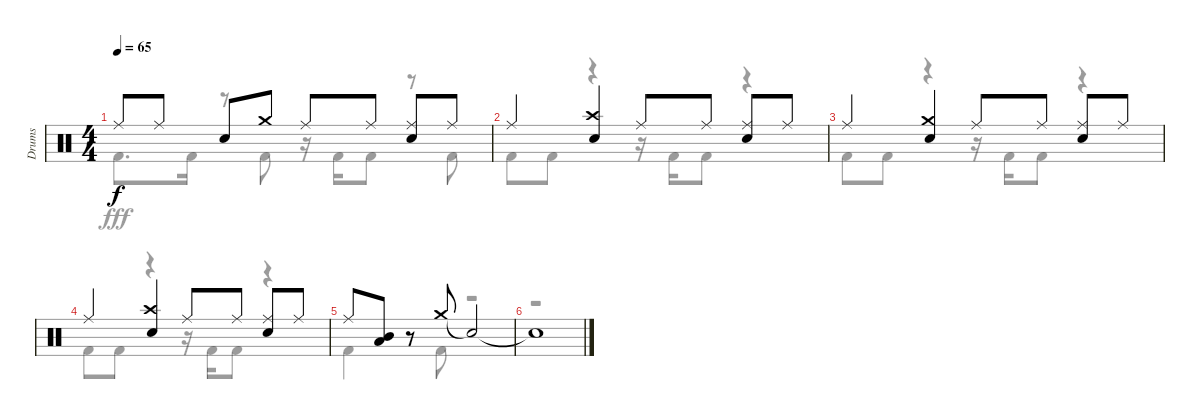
\track ("Drums" "Drums") {instrument percussion}
\staff {score}
\articulation defaults
\voice
\ts (4 4)
\tempo 65
\clef neutral
\ks c "Ride (middle)".8{dy f} "Ride (middle)".8 "Snare (hit) 2".8 "Crash medium (hit)".8 "Ride (middle)".8 "Ride (middle)".8
("Ride (middle)" "Snare (hit) 2").8 "Ride (middle)".8 |
"Ride (middle)".4 ("Crash high (hit)" "Snare (hit) 2").4 "Ride (middle)".8 "Ride (middle)".8 ("Ride (middle)" "Snare (hit) 2").8 "Ride (middle)".8 |
"Ride (middle)".4 ("Crash medium (hit)" "Snare (hit) 2").4 "Ride (middle)".8 "Ride (middle)".8 ("Ride (middle)" "Snare (hit) 2").8 "Ride (middle)".8 |
"Ride (middle)".4 ("Crash high (hit)" "Snare (hit) 2").4 "Ride (middle)".8 "Ride (middle)".8 ("Ride (middle)" "Snare (hit) 2").8 "Ride (middle)".8 |
"Ride (middle)".8 ("Mid Tom (hit)" "Low Tom (hit)").8 r.8 "Crash medium (hit)".8 "Snare (hit)"{t}.2 |
"Snare (hit)"{t}.1
\voice
\clef neutral
\ottava regular
\simile none
\ks c "Kick (hit) 2".8{d dy fff} "Kick (hit) 2".16
r.8 "Kick (hit) 2".8 r.16 "Kick (hit) 2".16 "Kick (hit) 2".8 r.8 "Kick (hit) 2".8 |
"Kick (hit) 2".8 "Kick (hit) 2".8 r.4 r.16 "Kick (hit) 2".16 "Kick (hit) 2".8 r.4 |
"Kick (hit) 2".8 "Kick (hit) 2".8 r.4 r.16 "Kick (hit) 2".16 "Kick (hit) 2".8 r.4 |
"Kick (hit) 2".8 "Kick (hit) 2".8 r.4 r.16 "Kick (hit) 2".16 "Kick (hit) 2".8 r.4 |
"Kick (hit) 2".4 r.8 "Kick (hit) 2".8 r.2 |
r.1
